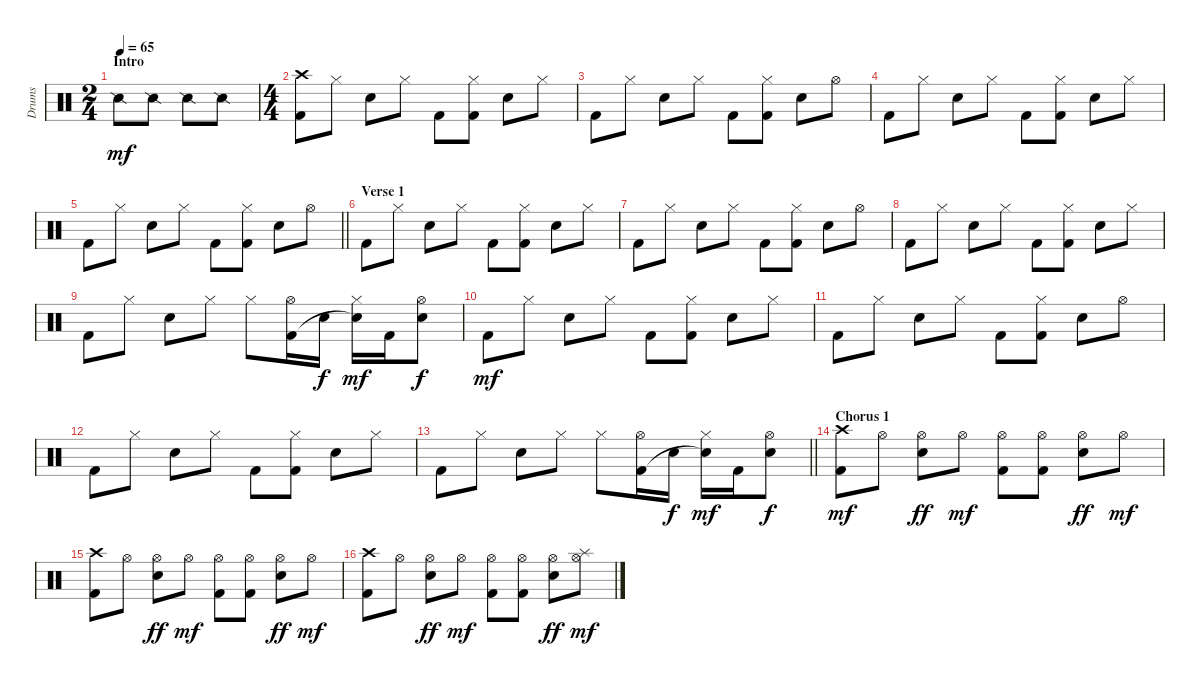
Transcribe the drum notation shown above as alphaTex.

\track ("Drums" "Drums") {instrument percussion}
\staff {score}
\articulation defaults
\ts (2 4)
\section ("" "Intro")
\tempo 65
\clef neutral
\ks c "Snare (side stick) 2".8{dy mf} "Snare (side stick) 2".8 "Snare (side stick) 2".8 "Snare (side stick) 2".8
|
\ts (4 4)
("Crash high (hit)" "Kick (hit) 2").8 "Hi-Hat (closed)".8 "Electric Snare (hit)".8 "Hi-Hat (closed)".8 "Kick (hit) 2".8 ("Hi-Hat (closed)" "Kick (hit) 2").8 "Electric Snare (hit)".8 "Hi-Hat (closed)".8 |
"Kick (hit) 2".8 "Hi-Hat (closed)".8 "Electric Snare (hit)".8 "Hi-Hat (closed)".8 "Kick (hit) 2".8 ("Hi-Hat (closed)" "Kick (hit) 2").8 "Electric Snare (hit)".8 "Hi-Hat (open)".8 |
"Kick (hit) 2".8 "Hi-Hat (closed)".8 "Electric Snare (hit)".8 "Hi-Hat (closed)".8 "Kick (hit) 2".8 ("Hi-Hat (closed)" "Kick (hit) 2").8 "Electric Snare (hit)".8 "Hi-Hat (closed)".8 |
\barLineRight lightlight "Kick (hit) 2".8 "Hi-Hat (closed)".8 "Electric Snare (hit)".8 "Hi-Hat (closed)".8 "Kick (hit) 2".8
("Hi-Hat (closed)" "Kick (hit) 2").8 "Electric Snare (hit)".8 "Hi-Hat (open)".8 |
\section ("" "Verse 1")
"Kick (hit) 2".8 "Hi-Hat (closed)".8 "Electric Snare (hit)".8 "Hi-Hat (closed)".8 "Kick (hit) 2".8 ("Hi-Hat (closed)" "Kick (hit) 2").8 "Electric Snare (hit)".8 "Hi-Hat (closed)".8 |
"Kick (hit) 2".8 "Hi-Hat (closed)".8 "Electric Snare (hit)".8 "Hi-Hat (closed)".8 "Kick (hit) 2".8 ("Hi-Hat (closed)" "Kick (hit) 2").8 "Electric Snare (hit)".8 "Hi-Hat (open)".8 |
"Kick (hit) 2".8 "Hi-Hat (closed)".8 "Electric Snare (hit)".8 "Hi-Hat (closed)".8 "Kick (hit) 2".8 ("Hi-Hat (closed)" "Kick (hit) 2").8 "Electric Snare (hit)".8 "Hi-Hat (closed)".8 |
"Kick (hit) 2".8 "Hi-Hat (closed)".8 "Electric Snare (hit)".8 "Hi-Hat (closed)".8 "Hi-Hat (closed)".8 ("Hi-Hat (open)" "Kick (hit) 2").16 "Electric Snare (hit)".16{dy f} ("Hi-Hat (closed)" "Snare (hit)"{t}).16{dy mf} "Kick (hit) 2".16 ("Hi-Hat (open)" "Electric Snare (hit)").8{dy f} |
"Kick (hit) 2".8{dy mf} "Hi-Hat (closed)".8 "Electric Snare (hit)".8 "Hi-Hat (closed)".8 "Kick (hit) 2".8 ("Hi-Hat (closed)" "Kick (hit) 2").8 "Electric Snare (hit)".8 "Hi-Hat (closed)".8 |
"Kick (hit) 2".8 "Hi-Hat (closed)".8 "Electric Snare (hit)".8 "Hi-Hat (closed)".8 "Kick (hit) 2".8 ("Hi-Hat (closed)" "Kick (hit) 2").8 "Electric Snare (hit)".8 "Hi-Hat (open)".8 |
"Kick (hit) 2".8 "Hi-Hat (closed)".8 "Electric Snare (hit)".8 "Hi-Hat (closed)".8 "Kick (hit) 2".8 ("Hi-Hat (closed)" "Kick (hit) 2").8 "Electric Snare (hit)".8 "Hi-Hat (closed)".8 |
\barLineRight lightlight "Kick (hit) 2".8 "Hi-Hat (closed)".8 "Electric Snare (hit)".8 "Hi-Hat (closed)".8 "Hi-Hat (closed)".8
("Hi-Hat (open)" "Kick (hit) 2").16 "Electric Snare (hit)".16{dy f} ("Hi-Hat (closed)" "Snare (hit)"{t}).16{dy mf} "Kick (hit) 2".16 ("Hi-Hat (open)" "Electric Snare (hit)").8{dy f} |
\section ("" "Chorus 1")
("Crash high (hit)" "Kick (hit) 2").8{dy mf} "Hi-Hat (open)".8 ("Hi-Hat (open)" "Electric Snare (hit)").8{dy ff} "Hi-Hat (open)".8{dy mf} ("Hi-Hat (open)" "Kick (hit) 2").8 ("Hi-Hat (open)" "Kick (hit) 2").8 ("Hi-Hat (open)" "Electric Snare (hit)").8{dy ff} "Hi-Hat (open)".8{dy mf} |
("Crash high (hit)" "Kick (hit) 2").8 "Hi-Hat (open)".8 ("Hi-Hat (open)" "Electric Snare (hit)").8{dy ff} "Hi-Hat (open)".8{dy mf} ("Hi-Hat (open)" "Kick (hit) 2").8 ("Hi-Hat (open)" "Kick (hit) 2").8 ("Hi-Hat (open)" "Electric Snare (hit)").8{dy ff} "Hi-Hat (open)".8{dy mf} |
("Crash high (hit)" "Kick (hit) 2").8 "Hi-Hat (open)".8 ("Hi-Hat (open)" "Electric Snare (hit)").8{dy ff} "Hi-Hat (open)".8{dy mf} ("Hi-Hat (open)" "Kick (hit) 2").8 ("Hi-Hat (open)" "Kick (hit) 2").8 ("Hi-Hat (open)" "Electric Snare (hit)").8{dy ff} ("Splash (hit)" "Hi-Hat (open)").8{dy mf}
